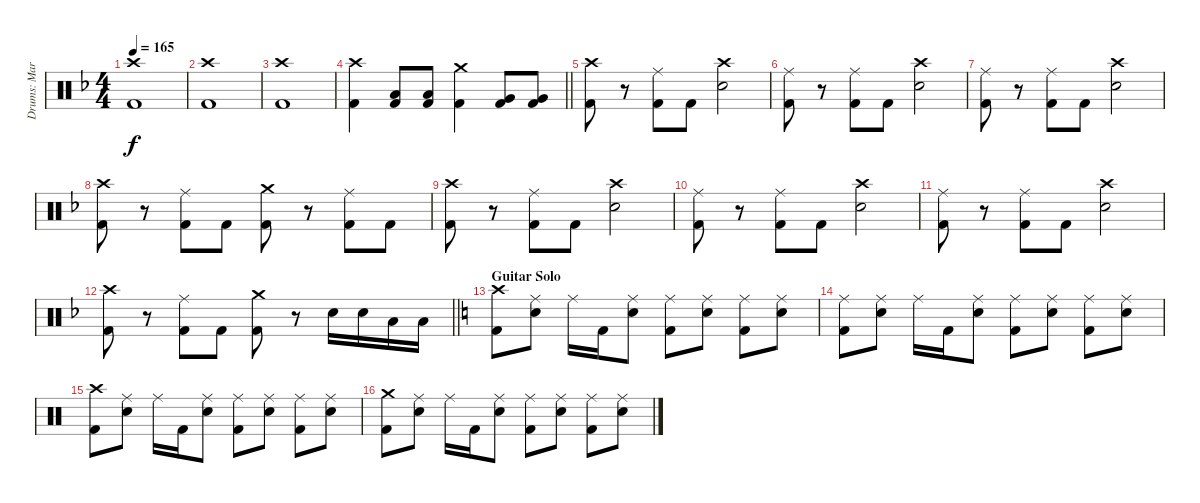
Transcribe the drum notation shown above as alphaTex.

\track ("Drums: Martin Herzinger" "Drums: Mar") {instrument percussion}
\staff {score}
\articulation defaults
\ts (4 4)
\tempo 165
\clef neutral
\ks dminor
("Crash high (hit)" "Kick (hit) 2").1{dy f} |
("Crash high (hit)" "Kick (hit) 2").1 |
("Crash high (hit)" "Kick (hit) 2").1 |
\barLineRight lightlight
("Crash high (hit)" "Kick (hit) 2").4 ("Low Tom (hit)" "Kick (hit) 2").8 ("Low Tom (hit)" "Kick (hit) 2").8 ("Crash medium (hit)" "Kick (hit) 2").4 ("Very Low Tom (hit)" "Kick (hit) 2").8 ("Very Low Tom (hit)" "Kick (hit) 2").8 |
("Crash high (hit)" "Kick (hit) 2").8 r.8 ("Ride (middle)" "Kick (hit) 2").8 "Kick (hit) 2".8 ("Crash high (hit)" "Snare (hit) 2").2 |
("Ride (middle)" "Kick (hit) 2").8 r.8 ("Ride (middle)" "Kick (hit) 2").8 "Kick (hit) 2".8 ("Crash high (hit)" "Snare (hit) 2").2 |
("Ride (middle)" "Kick (hit) 2").8 r.8 ("Ride (middle)" "Kick (hit) 2").8 "Kick (hit) 2".8 ("Crash high (hit)" "Snare (hit) 2").2 |
("Crash high (hit)" "Kick (hit) 2").8 r.8 ("Ride (middle)" "Kick (hit) 2").8 "Kick (hit) 2".8 ("Crash medium (hit)" "Kick (hit) 2").8 r.8 ("Ride (middle)" "Kick (hit) 2").8 "Kick (hit) 2".8 |
("Crash high (hit)" "Kick (hit) 2").8 r.8 ("Ride (middle)" "Kick (hit) 2").8 "Kick (hit) 2".8 ("Crash high (hit)" "Snare (hit) 2").2 |
("Ride (middle)" "Kick (hit) 2").8 r.8 ("Ride (middle)" "Kick (hit) 2").8 "Kick (hit) 2".8 ("Crash high (hit)" "Snare (hit) 2").2 |
("Ride (middle)" "Kick (hit) 2").8 r.8 ("Ride (middle)" "Kick (hit) 2").8 "Kick (hit) 2".8 ("Crash high (hit)" "Snare (hit) 2").2 |
\barLineRight lightlight
("Crash high (hit)" "Kick (hit) 2").8 r.8 ("Ride (middle)" "Kick (hit) 2").8 "Kick (hit) 2".8 ("Crash medium (hit)" "Kick (hit) 2").8 r.8 "Snare (hit) 2".16 "Snare (hit) 2".16 "Low Tom (hit)".16 "Low Tom (hit)".16 |
\section ("" "Guitar Solo")
\ks aminor
("Crash high (hit)" "Kick (hit) 2").8 ("Ride (middle)" "Snare (hit) 2").8 "Ride (middle)".16 "Kick (hit) 2".16 ("Ride (middle)" "Snare (hit) 2").8 ("Ride (middle)" "Kick (hit) 2").8 ("Ride (middle)" "Snare (hit) 2").8 ("Ride (middle)" "Kick (hit) 2").8 ("Ride (middle)" "Snare (hit) 2").8 |
("Ride (middle)" "Kick (hit) 2").8 ("Ride (middle)" "Snare (hit) 2").8 "Ride (middle)".16 "Kick (hit) 2".16 ("Ride (middle)" "Snare (hit) 2").8 ("Ride (middle)" "Kick (hit) 2").8 ("Ride (middle)" "Snare (hit) 2").8 ("Ride (middle)" "Kick (hit) 2").8 ("Ride (middle)" "Snare (hit) 2").8 |
("Crash high (hit)" "Kick (hit) 2").8 ("Ride (middle)" "Snare (hit) 2").8 "Ride (middle)".16 "Kick (hit) 2".16 ("Ride (middle)" "Snare (hit) 2").8 ("Ride (middle)" "Kick (hit) 2").8 ("Ride (middle)" "Snare (hit) 2").8 ("Ride (middle)" "Kick (hit) 2").8 ("Ride (middle)" "Snare (hit) 2").8 |
("Crash medium (hit)" "Kick (hit) 2").8 ("Ride (middle)" "Snare (hit) 2").8 "Ride (middle)".16 "Kick (hit) 2".16 ("Ride (middle)" "Snare (hit) 2").8 ("Ride (middle)" "Kick (hit) 2").8 ("Ride (middle)" "Snare (hit) 2").8 ("Ride (middle)" "Kick (hit) 2").8 ("Ride (middle)" "Snare (hit) 2").8
